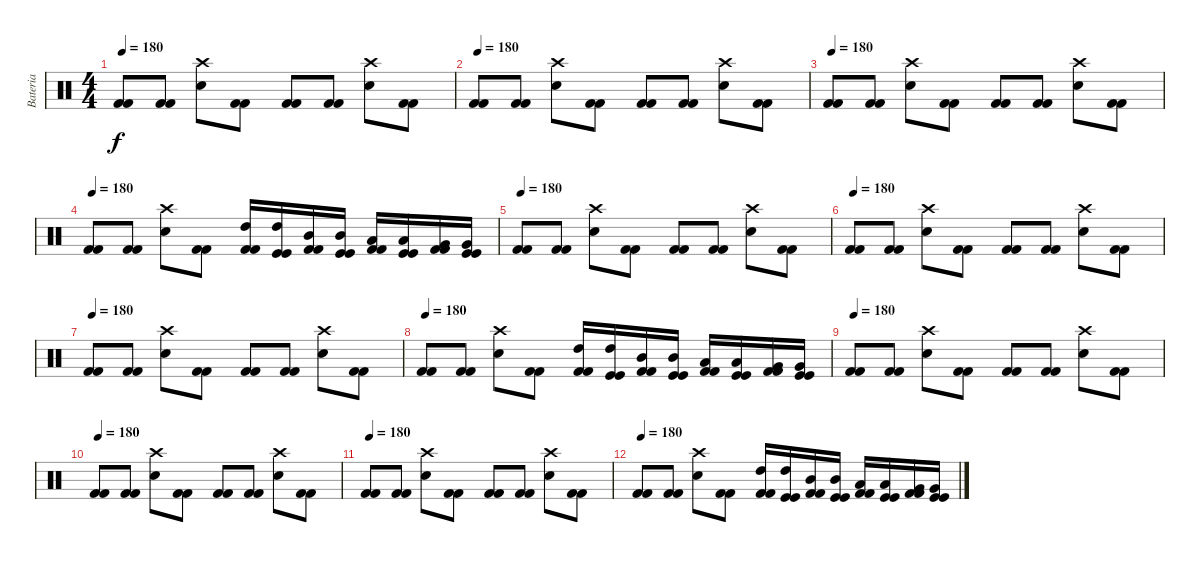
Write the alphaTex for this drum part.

\track ("Bateria" "Bateria") {instrument percussion}
\staff {score}
\articulation defaults
\ts (4 4)
\tempo 180
\clef neutral
\ks c
("Kick (hit) 2" "Kick (hit) 2").8{dy f} ("Kick (hit) 2" "Kick (hit) 2").8 ("Snare (hit) 2" "Crash high (hit)").8 ("Kick (hit) 2" "Kick (hit) 2").8 ("Kick (hit) 2" "Kick (hit) 2").8 ("Kick (hit) 2" "Kick (hit) 2").8 ("Snare (hit) 2" "Crash high (hit)").8 ("Kick (hit) 2" "Kick (hit) 2").8 |
\tempo 180
("Kick (hit) 2" "Kick (hit) 2").8 ("Kick (hit) 2" "Kick (hit) 2").8 ("Snare (hit) 2" "Crash high (hit)").8 ("Kick (hit) 2" "Kick (hit) 2").8 ("Kick (hit) 2" "Kick (hit) 2").8 ("Kick (hit) 2" "Kick (hit) 2").8 ("Snare (hit) 2" "Crash high (hit)").8 ("Kick (hit) 2" "Kick (hit) 2").8 |
\tempo 180
("Kick (hit) 2" "Kick (hit) 2").8 ("Kick (hit) 2" "Kick (hit) 2").8 ("Snare (hit) 2" "Crash high (hit)").8 ("Kick (hit) 2" "Kick (hit) 2").8 ("Kick (hit) 2" "Kick (hit) 2").8 ("Kick (hit) 2" "Kick (hit) 2").8 ("Snare (hit) 2" "Crash high (hit)").8 ("Kick (hit) 2" "Kick (hit) 2").8 |
\tempo 180
("Kick (hit) 2" "Kick (hit) 2").8 ("Kick (hit) 2" "Kick (hit) 2").8 ("Snare (hit) 2" "Crash high (hit)").8 ("Kick (hit) 2" "Kick (hit) 2").8 ("Kick (hit) 2" "Kick (hit) 2" "High Tom (hit)").16 ("Kick (hit)" "Kick (hit)" "High Tom (hit)").16 ("Kick (hit) 2" "Kick (hit) 2" "Mid Tom (hit)").16 ("Kick (hit)" "Kick (hit)" "Mid Tom (hit)").16 ("Kick (hit) 2" "Kick (hit) 2" "Low Tom (hit)").16 ("Kick (hit)" "Kick (hit)" "Low Tom (hit)").16 ("Kick (hit) 2" "Kick (hit) 2" "Very Low Tom (hit)").16 ("Kick (hit)" "Kick (hit)" "Very Low Tom (hit)").16 |
\tempo 180
("Kick (hit) 2" "Kick (hit) 2").8 ("Kick (hit) 2" "Kick (hit) 2").8 ("Snare (hit) 2" "Crash high (hit)").8 ("Kick (hit) 2" "Kick (hit) 2").8 ("Kick (hit) 2" "Kick (hit) 2").8 ("Kick (hit) 2" "Kick (hit) 2").8 ("Snare (hit) 2" "Crash high (hit)").8 ("Kick (hit) 2" "Kick (hit) 2").8 |
\tempo 180
("Kick (hit) 2" "Kick (hit) 2").8 ("Kick (hit) 2" "Kick (hit) 2").8 ("Snare (hit) 2" "Crash high (hit)").8 ("Kick (hit) 2" "Kick (hit) 2").8 ("Kick (hit) 2" "Kick (hit) 2").8 ("Kick (hit) 2" "Kick (hit) 2").8 ("Snare (hit) 2" "Crash high (hit)").8 ("Kick (hit) 2" "Kick (hit) 2").8 |
\tempo 180
("Kick (hit) 2" "Kick (hit) 2").8 ("Kick (hit) 2" "Kick (hit) 2").8 ("Snare (hit) 2" "Crash high (hit)").8 ("Kick (hit) 2" "Kick (hit) 2").8 ("Kick (hit) 2" "Kick (hit) 2").8 ("Kick (hit) 2" "Kick (hit) 2").8 ("Snare (hit) 2" "Crash high (hit)").8 ("Kick (hit) 2" "Kick (hit) 2").8 |
\tempo 180
("Kick (hit) 2" "Kick (hit) 2").8 ("Kick (hit) 2" "Kick (hit) 2").8 ("Snare (hit) 2" "Crash high (hit)").8 ("Kick (hit) 2" "Kick (hit) 2").8 ("Kick (hit) 2" "Kick (hit) 2" "High Tom (hit)").16 ("Kick (hit)" "Kick (hit)" "High Tom (hit)").16 ("Kick (hit) 2" "Kick (hit) 2" "Mid Tom (hit)").16 ("Kick (hit)" "Kick (hit)" "Mid Tom (hit)").16 ("Kick (hit) 2" "Kick (hit) 2" "Low Tom (hit)").16 ("Kick (hit)" "Kick (hit)" "Low Tom (hit)").16 ("Kick (hit) 2" "Kick (hit) 2" "Very Low Tom (hit)").16 ("Kick (hit)" "Kick (hit)" "Very Low Tom (hit)").16 |
\tempo 180
("Kick (hit) 2" "Kick (hit) 2").8 ("Kick (hit) 2" "Kick (hit) 2").8 ("Snare (hit) 2" "Crash high (hit)").8 ("Kick (hit) 2" "Kick (hit) 2").8 ("Kick (hit) 2" "Kick (hit) 2").8 ("Kick (hit) 2" "Kick (hit) 2").8 ("Snare (hit) 2" "Crash high (hit)").8 ("Kick (hit) 2" "Kick (hit) 2").8 |
\tempo 180
("Kick (hit) 2" "Kick (hit) 2").8 ("Kick (hit) 2" "Kick (hit) 2").8 ("Snare (hit) 2" "Crash high (hit)").8 ("Kick (hit) 2" "Kick (hit) 2").8 ("Kick (hit) 2" "Kick (hit) 2").8 ("Kick (hit) 2" "Kick (hit) 2").8 ("Snare (hit) 2" "Crash high (hit)").8 ("Kick (hit) 2" "Kick (hit) 2").8 |
\tempo 180
("Kick (hit) 2" "Kick (hit) 2").8 ("Kick (hit) 2" "Kick (hit) 2").8 ("Snare (hit) 2" "Crash high (hit)").8 ("Kick (hit) 2" "Kick (hit) 2").8 ("Kick (hit) 2" "Kick (hit) 2").8 ("Kick (hit) 2" "Kick (hit) 2").8 ("Snare (hit) 2" "Crash high (hit)").8 ("Kick (hit) 2" "Kick (hit) 2").8 |
\tempo 180
("Kick (hit) 2" "Kick (hit) 2").8 ("Kick (hit) 2" "Kick (hit) 2").8 ("Snare (hit) 2" "Crash high (hit)").8 ("Kick (hit) 2" "Kick (hit) 2").8 ("Kick (hit) 2" "Kick (hit) 2" "High Tom (hit)").16 ("Kick (hit)" "Kick (hit)" "High Tom (hit)").16 ("Kick (hit) 2" "Kick (hit) 2" "Mid Tom (hit)").16 ("Kick (hit)" "Kick (hit)" "Mid Tom (hit)").16 ("Kick (hit) 2" "Kick (hit) 2" "Low Tom (hit)").16 ("Kick (hit)" "Kick (hit)" "Low Tom (hit)").16 ("Kick (hit) 2" "Kick (hit) 2" "Very Low Tom (hit)").16 ("Kick (hit)" "Kick (hit)" "Very Low Tom (hit)").16
